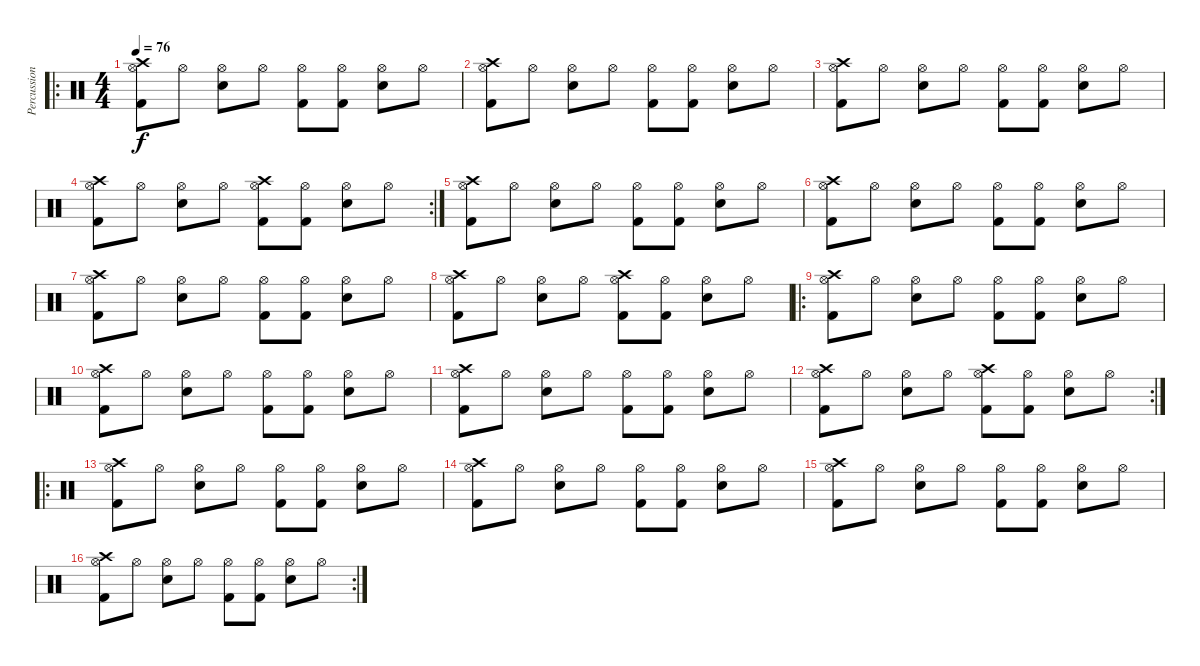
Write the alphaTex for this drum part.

\track ("Percussions" "Percussion") {instrument percussion}
\staff {score}
\articulation defaults
\ro
\ts (4 4)
\tempo 76
\clef neutral
\ks c
("Crash high (hit)" "Kick (hit) 2" "Hi-Hat (open)").8{dy f} "Hi-Hat (open)".8 ("Hi-Hat (open)" "Snare (hit) 2").8 "Hi-Hat (open)".8 ("Kick (hit) 2" "Hi-Hat (open)").8 ("Kick (hit) 2" "Hi-Hat (open)").8 ("Hi-Hat (open)" "Snare (hit) 2").8 "Hi-Hat (open)".8 |
("Crash high (hit)" "Kick (hit) 2" "Hi-Hat (open)").8 "Hi-Hat (open)".8 ("Hi-Hat (open)" "Snare (hit) 2").8 "Hi-Hat (open)".8 ("Kick (hit) 2" "Hi-Hat (open)").8 ("Kick (hit) 2" "Hi-Hat (open)").8 ("Hi-Hat (open)" "Snare (hit) 2").8 "Hi-Hat (open)".8 |
("Crash high (hit)" "Kick (hit) 2" "Hi-Hat (open)").8 "Hi-Hat (open)".8 ("Hi-Hat (open)" "Snare (hit) 2").8 "Hi-Hat (open)".8 ("Kick (hit) 2" "Hi-Hat (open)").8 ("Kick (hit) 2" "Hi-Hat (open)").8 ("Hi-Hat (open)" "Snare (hit) 2").8 "Hi-Hat (open)".8 |
\rc 2
("Crash high (hit)" "Kick (hit) 2" "Hi-Hat (open)").8 "Hi-Hat (open)".8 ("Hi-Hat (open)" "Snare (hit) 2").8 "Hi-Hat (open)".8 ("Crash high (hit)" "Kick (hit) 2" "Hi-Hat (open)").8 ("Kick (hit) 2" "Hi-Hat (open)").8 ("Hi-Hat (open)" "Snare (hit) 2").8 "Hi-Hat (open)".8 |
("Crash high (hit)" "Kick (hit) 2" "Hi-Hat (open)").8 "Hi-Hat (open)".8 ("Hi-Hat (open)" "Snare (hit) 2").8 "Hi-Hat (open)".8 ("Kick (hit) 2" "Hi-Hat (open)").8 ("Kick (hit) 2" "Hi-Hat (open)").8 ("Hi-Hat (open)" "Snare (hit) 2").8 "Hi-Hat (open)".8 |
("Crash high (hit)" "Kick (hit) 2" "Hi-Hat (open)").8 "Hi-Hat (open)".8 ("Hi-Hat (open)" "Snare (hit) 2").8 "Hi-Hat (open)".8 ("Kick (hit) 2" "Hi-Hat (open)").8 ("Kick (hit) 2" "Hi-Hat (open)").8 ("Hi-Hat (open)" "Snare (hit) 2").8 "Hi-Hat (open)".8 |
("Crash high (hit)" "Kick (hit) 2" "Hi-Hat (open)").8 "Hi-Hat (open)".8 ("Hi-Hat (open)" "Snare (hit) 2").8 "Hi-Hat (open)".8 ("Kick (hit) 2" "Hi-Hat (open)").8 ("Kick (hit) 2" "Hi-Hat (open)").8 ("Hi-Hat (open)" "Snare (hit) 2").8 "Hi-Hat (open)".8 |
("Crash high (hit)" "Kick (hit) 2" "Hi-Hat (open)").8 "Hi-Hat (open)".8 ("Hi-Hat (open)" "Snare (hit) 2").8 "Hi-Hat (open)".8 ("Crash high (hit)" "Kick (hit) 2" "Hi-Hat (open)").8 ("Kick (hit) 2" "Hi-Hat (open)").8 ("Hi-Hat (open)" "Snare (hit) 2").8 "Hi-Hat (open)".8 |
\ro
("Crash high (hit)" "Kick (hit) 2" "Hi-Hat (open)").8 "Hi-Hat (open)".8 ("Hi-Hat (open)" "Snare (hit) 2").8 "Hi-Hat (open)".8 ("Kick (hit) 2" "Hi-Hat (open)").8 ("Kick (hit) 2" "Hi-Hat (open)").8 ("Hi-Hat (open)" "Snare (hit) 2").8 "Hi-Hat (open)".8 |
("Crash high (hit)" "Kick (hit) 2" "Hi-Hat (open)").8 "Hi-Hat (open)".8 ("Hi-Hat (open)" "Snare (hit) 2").8 "Hi-Hat (open)".8 ("Kick (hit) 2" "Hi-Hat (open)").8 ("Kick (hit) 2" "Hi-Hat (open)").8 ("Hi-Hat (open)" "Snare (hit) 2").8 "Hi-Hat (open)".8 |
("Crash high (hit)" "Kick (hit) 2" "Hi-Hat (open)").8 "Hi-Hat (open)".8 ("Hi-Hat (open)" "Snare (hit) 2").8 "Hi-Hat (open)".8 ("Kick (hit) 2" "Hi-Hat (open)").8 ("Kick (hit) 2" "Hi-Hat (open)").8 ("Hi-Hat (open)" "Snare (hit) 2").8 "Hi-Hat (open)".8 |
\rc 2
("Crash high (hit)" "Kick (hit) 2" "Hi-Hat (open)").8 "Hi-Hat (open)".8 ("Hi-Hat (open)" "Snare (hit) 2").8 "Hi-Hat (open)".8 ("Crash high (hit)" "Kick (hit) 2" "Hi-Hat (open)").8 ("Kick (hit) 2" "Hi-Hat (open)").8 ("Hi-Hat (open)" "Snare (hit) 2").8 "Hi-Hat (open)".8 |
\ro
("Crash high (hit)" "Kick (hit) 2" "Hi-Hat (open)").8 "Hi-Hat (open)".8 ("Hi-Hat (open)" "Snare (hit) 2").8 "Hi-Hat (open)".8 ("Kick (hit) 2" "Hi-Hat (open)").8 ("Kick (hit) 2" "Hi-Hat (open)").8 ("Hi-Hat (open)" "Snare (hit) 2").8 "Hi-Hat (open)".8 |
("Crash high (hit)" "Kick (hit) 2" "Hi-Hat (open)").8 "Hi-Hat (open)".8 ("Hi-Hat (open)" "Snare (hit) 2").8 "Hi-Hat (open)".8 ("Kick (hit) 2" "Hi-Hat (open)").8 ("Kick (hit) 2" "Hi-Hat (open)").8 ("Hi-Hat (open)" "Snare (hit) 2").8 "Hi-Hat (open)".8 |
("Crash high (hit)" "Kick (hit) 2" "Hi-Hat (open)").8 "Hi-Hat (open)".8 ("Hi-Hat (open)" "Snare (hit) 2").8 "Hi-Hat (open)".8 ("Kick (hit) 2" "Hi-Hat (open)").8 ("Kick (hit) 2" "Hi-Hat (open)").8 ("Hi-Hat (open)" "Snare (hit) 2").8 "Hi-Hat (open)".8 |
\rc 2
("Crash high (hit)" "Kick (hit) 2" "Hi-Hat (open)").8 "Hi-Hat (open)".8 ("Hi-Hat (open)" "Snare (hit) 2").8 "Hi-Hat (open)".8 ("Kick (hit) 2" "Hi-Hat (open)").8 ("Kick (hit) 2" "Hi-Hat (open)").8 ("Hi-Hat (open)" "Snare (hit) 2").8 "Hi-Hat (open)".8
